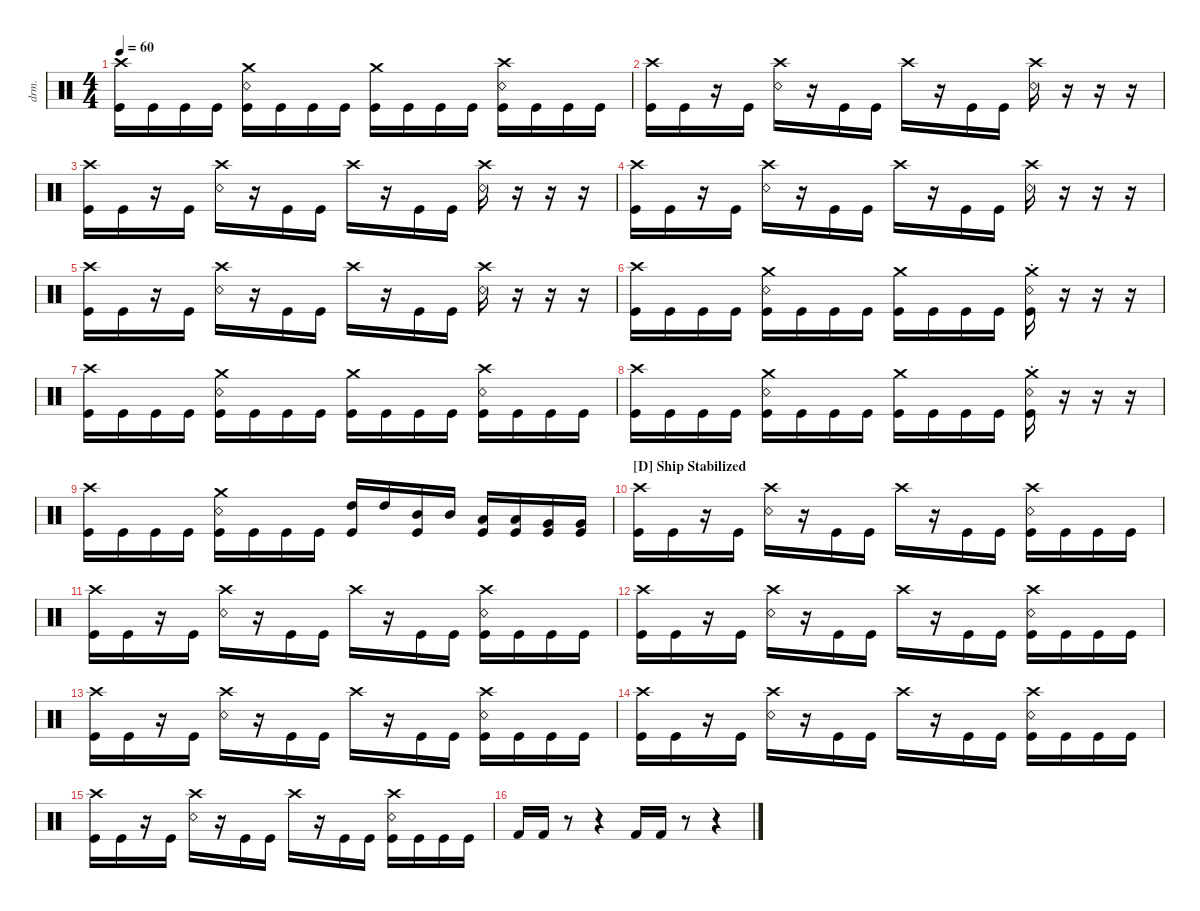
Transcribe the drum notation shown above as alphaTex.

\defaultSystemsLayout 4
\hideDynamics
\bracketExtendMode nobrackets
\otherSystemsTrackNameOrientation horizontal
\track ("Drumkit" "drm.") {instrument percussion}
\staff {score}
\articulation defaults
\ts (4 4)
\tempo 60
\clef neutral
\ks c
("Crash high (hit)" "Kick (hit)").16{dy fff beam Down} "Kick (hit)".16{beam Down} "Kick (hit)".16{beam Down} "Kick (hit)".16{beam Down} ("Crash medium (hit)" "Kick (hit)" "Snare (rim shot)").16{beam Down} "Kick (hit)".16{beam Down} "Kick (hit)".16{beam Down} "Kick (hit)".16{beam Down} ("Kick (hit)" "Crash medium (hit)").16{beam Down} "Kick (hit)".16{beam Down} "Kick (hit)".16{beam Down} "Kick (hit)".16{beam Down} ("Kick (hit)" "Crash high (hit)" "Snare (rim shot)").16{beam Down} "Kick (hit)".16{beam Down} "Kick (hit)".16{beam Down} "Kick (hit)".16{beam Down} |
("Crash high (hit)" "Kick (hit)").16{dy mf beam Down} "Kick (hit)".16{beam Down} r.16{beam Down} "Kick (hit)".16{beam Down} ("Snare (rim shot)" "Crash high (hit)").16{beam Down} r.16{beam Down} "Kick (hit)".16{beam Down} "Kick (hit)".16{beam Down} "Crash high (hit)".16{beam Down} r.16{beam Down} "Kick (hit)".16{beam Down} "Kick (hit)".16{beam Down} ("Snare (rim shot)" "Crash high (hit)").16{beam Down} r.16{beam Down} r.16{beam Down} r.16{beam Down} |
("Crash high (hit)" "Kick (hit)").16{beam Down} "Kick (hit)".16{beam Down} r.16{beam Down} "Kick (hit)".16{beam Down} ("Snare (rim shot)" "Crash high (hit)").16{beam Down} r.16{beam Down} "Kick (hit)".16{beam Down} "Kick (hit)".16{beam Down} "Crash high (hit)".16{beam Down} r.16{beam Down} "Kick (hit)".16{beam Down} "Kick (hit)".16{beam Down} ("Snare (rim shot)" "Crash high (hit)").16{beam Down} r.16{beam Down} r.16{beam Down} r.16{beam Down} |
("Crash high (hit)" "Kick (hit)").16{beam Down} "Kick (hit)".16{beam Down} r.16{beam Down} "Kick (hit)".16{beam Down} ("Snare (rim shot)" "Crash high (hit)").16{beam Down} r.16{beam Down} "Kick (hit)".16{beam Down} "Kick (hit)".16{beam Down} "Crash high (hit)".16{beam Down} r.16{beam Down} "Kick (hit)".16{beam Down} "Kick (hit)".16{beam Down} ("Snare (rim shot)" "Crash high (hit)").16{beam Down} r.16{beam Down} r.16{beam Down} r.16{beam Down} |
("Crash high (hit)" "Kick (hit)").16{beam Down} "Kick (hit)".16{beam Down} r.16{beam Down} "Kick (hit)".16{beam Down} ("Snare (rim shot)" "Crash high (hit)").16{beam Down} r.16{beam Down} "Kick (hit)".16{beam Down} "Kick (hit)".16{beam Down} "Crash high (hit)".16{beam Down} r.16{beam Down} "Kick (hit)".16{beam Down} "Kick (hit)".16{beam Down} ("Snare (rim shot)" "Crash high (hit)").16{beam Down} r.16{beam Down} r.16{beam Down} r.16{beam Down} |
("Crash high (hit)" "Kick (hit)").16{dy fff beam Down} "Kick (hit)".16{beam Down} "Kick (hit)".16{beam Down} "Kick (hit)".16{beam Down} ("Crash medium (hit)" "Kick (hit)" "Snare (rim shot)").16{beam Down} "Kick (hit)".16{beam Down} "Kick (hit)".16{beam Down} "Kick (hit)".16{beam Down} ("Kick (hit)" "Crash medium (hit)").16{beam Down} "Kick (hit)".16{beam Down} "Kick (hit)".16{beam Down} "Kick (hit)".16{beam Down} ("Kick (hit)" "Snare (rim shot)" "Crash medium (choke)").16{beam Down} r.16{beam Down} r.16{beam Down} r.16{beam Down} |
("Crash high (hit)" "Kick (hit)").16{beam Down} "Kick (hit)".16{beam Down} "Kick (hit)".16{beam Down} "Kick (hit)".16{beam Down} ("Crash medium (hit)" "Kick (hit)" "Snare (rim shot)").16{beam Down} "Kick (hit)".16{beam Down} "Kick (hit)".16{beam Down} "Kick (hit)".16{beam Down} ("Kick (hit)" "Crash medium (hit)").16{beam Down} "Kick (hit)".16{beam Down} "Kick (hit)".16{beam Down} "Kick (hit)".16{beam Down} ("Kick (hit)" "Crash high (hit)" "Snare (rim shot)").16{beam Down} "Kick (hit)".16{beam Down} "Kick (hit)".16{beam Down} "Kick (hit)".16{beam Down} |
("Crash high (hit)" "Kick (hit)").16{beam Down} "Kick (hit)".16{beam Down} "Kick (hit)".16{beam Down} "Kick (hit)".16{beam Down} ("Crash medium (hit)" "Kick (hit)" "Snare (rim shot)").16{beam Down} "Kick (hit)".16{beam Down} "Kick (hit)".16{beam Down} "Kick (hit)".16{beam Down} ("Kick (hit)" "Crash medium (hit)").16{beam Down} "Kick (hit)".16{beam Down} "Kick (hit)".16{beam Down} "Kick (hit)".16{beam Down} ("Kick (hit)" "Snare (rim shot)" "Crash medium (choke)").16{beam Down} r.16{beam Down} r.16{beam Down} r.16{beam Down} |
("Crash high (hit)" "Kick (hit)").16{beam Down} "Kick (hit)".16{beam Down} "Kick (hit)".16{beam Down} "Kick (hit)".16{beam Down} ("Crash medium (hit)" "Kick (hit)" "Snare (rim shot)").16{beam Down} "Kick (hit)".16{beam Down} "Kick (hit)".16{beam Down} "Kick (hit)".16{beam Down} ("High Tom (hit)" "Kick (hit)").16{beam Up} "High Tom (hit)".16{beam Up} ("Mid Tom (hit)" "Kick (hit)").16{beam Up} "Mid Tom (hit)".16{beam Up} ("Low Tom (hit)" "Kick (hit)").16{beam Up} ("Low Tom (hit)" "Kick (hit)").16{beam Up} ("Very Low Tom (hit)" "Kick (hit)").16{beam Up} ("Very Low Tom (hit)" "Kick (hit)").16{beam Up} |
\section ("D" "Ship Stabilized")
("Crash high (hit)" "Kick (hit)").16{dy mf beam Down} "Kick (hit)".16{beam Down} r.16{beam Down} "Kick (hit)".16{beam Down} ("Snare (rim shot)" "Crash high (hit)").16{beam Down} r.16{beam Down} "Kick (hit)".16{beam Down} "Kick (hit)".16{beam Down} "Crash high (hit)".16{beam Down} r.16{beam Down} "Kick (hit)".16{beam Down} "Kick (hit)".16{beam Down} ("Snare (rim shot)" "Crash high (hit)" "Kick (hit)").16{beam Down} "Kick (hit)".16{beam Down} "Kick (hit)".16{beam Down} "Kick (hit)".16{beam Down} |
("Crash high (hit)" "Kick (hit)").16{beam Down} "Kick (hit)".16{beam Down} r.16{beam Down} "Kick (hit)".16{beam Down} ("Snare (rim shot)" "Crash high (hit)").16{beam Down} r.16{beam Down} "Kick (hit)".16{beam Down} "Kick (hit)".16{beam Down} "Crash high (hit)".16{beam Down} r.16{beam Down} "Kick (hit)".16{beam Down} "Kick (hit)".16{beam Down} ("Snare (rim shot)" "Crash high (hit)" "Kick (hit)").16{beam Down} "Kick (hit)".16{beam Down} "Kick (hit)".16{beam Down} "Kick (hit)".16{beam Down} |
("Crash high (hit)" "Kick (hit)").16{beam Down} "Kick (hit)".16{beam Down} r.16{beam Down} "Kick (hit)".16{beam Down} ("Snare (rim shot)" "Crash high (hit)").16{beam Down} r.16{beam Down} "Kick (hit)".16{beam Down} "Kick (hit)".16{beam Down} "Crash high (hit)".16{beam Down} r.16{beam Down} "Kick (hit)".16{beam Down} "Kick (hit)".16{beam Down} ("Snare (rim shot)" "Crash high (hit)" "Kick (hit)").16{beam Down} "Kick (hit)".16{beam Down} "Kick (hit)".16{beam Down} "Kick (hit)".16{beam Down} |
("Crash high (hit)" "Kick (hit)").16{beam Down} "Kick (hit)".16{beam Down} r.16{beam Down} "Kick (hit)".16{beam Down} ("Snare (rim shot)" "Crash high (hit)").16{beam Down} r.16{beam Down} "Kick (hit)".16{beam Down} "Kick (hit)".16{beam Down} "Crash high (hit)".16{beam Down} r.16{beam Down} "Kick (hit)".16{beam Down} "Kick (hit)".16{beam Down} ("Snare (rim shot)" "Crash high (hit)" "Kick (hit)").16{beam Down} "Kick (hit)".16{beam Down} "Kick (hit)".16{beam Down} "Kick (hit)".16{beam Down} |
("Crash high (hit)" "Kick (hit)").16{beam Down} "Kick (hit)".16{beam Down} r.16{beam Down} "Kick (hit)".16{beam Down} ("Snare (rim shot)" "Crash high (hit)").16{beam Down} r.16{beam Down} "Kick (hit)".16{beam Down} "Kick (hit)".16{beam Down} "Crash high (hit)".16{beam Down} r.16{beam Down} "Kick (hit)".16{beam Down} "Kick (hit)".16{beam Down} ("Snare (rim shot)" "Crash high (hit)" "Kick (hit)").16{beam Down} "Kick (hit)".16{beam Down} "Kick (hit)".16{beam Down} "Kick (hit)".16{beam Down} |
("Crash high (hit)" "Kick (hit)").16{beam Down} "Kick (hit)".16{beam Down} r.16{beam Down} "Kick (hit)".16{beam Down} ("Snare (rim shot)" "Crash high (hit)").16{beam Down} r.16{beam Down} "Kick (hit)".16{beam Down} "Kick (hit)".16{beam Down} "Crash high (hit)".16{beam Down} r.16{beam Down} "Kick (hit)".16{beam Down} "Kick (hit)".16{beam Down} ("Snare (rim shot)" "Crash high (hit)" "Kick (hit)").16{beam Down} "Kick (hit)".16{beam Down} "Kick (hit)".16{beam Down} "Kick (hit)".16{beam Down} |
"Kick (hit) 2".16{beam Up} "Kick (hit) 2".16{beam Up} r.8{beam Up} r.4{beam Up} "Kick (hit) 2".16{beam Up} "Kick (hit) 2".16{beam Up} r.8{beam Up} r.4{beam Up}
